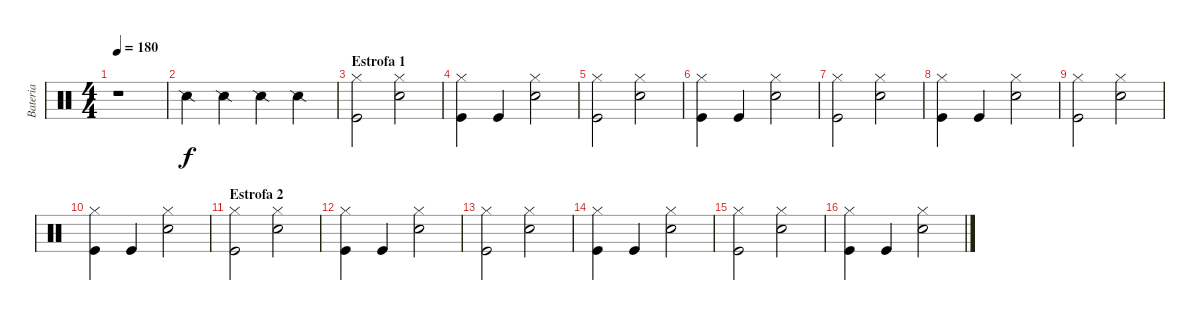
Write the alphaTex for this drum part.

\track ("Bateria" "Bateria") {instrument percussion}
\staff {score}
\articulation defaults
\ts (4 4)
\tempo 180
\tempo 140
\tempo 180
\clef neutral
\ks c
r.1{dy f} |
"Snare (side stick) 2".4 "Snare (side stick) 2".4 "Snare (side stick) 2".4 "Snare (side stick) 2".4 |
\section ("" "Estrofa 1")
("Hi-Hat (closed)" "Kick (hit)").2 ("Hi-Hat (closed)" "Snare (hit) 2").2 |
("Hi-Hat (closed)" "Kick (hit)").4 "Kick (hit)".4 ("Hi-Hat (closed)" "Snare (hit) 2").2 |
("Hi-Hat (closed)" "Kick (hit)").2 ("Hi-Hat (closed)" "Snare (hit) 2").2 |
("Hi-Hat (closed)" "Kick (hit)").4 "Kick (hit)".4 ("Hi-Hat (closed)" "Snare (hit) 2").2 |
("Hi-Hat (closed)" "Kick (hit)").2 ("Hi-Hat (closed)" "Snare (hit) 2").2 |
("Hi-Hat (closed)" "Kick (hit)").4 "Kick (hit)".4 ("Hi-Hat (closed)" "Snare (hit) 2").2 |
("Hi-Hat (closed)" "Kick (hit)").2 ("Hi-Hat (closed)" "Snare (hit) 2").2 |
("Hi-Hat (closed)" "Kick (hit)").4 "Kick (hit)".4 ("Hi-Hat (closed)" "Snare (hit) 2").2 |
\section ("" "Estrofa 2")
("Hi-Hat (closed)" "Kick (hit)").2 ("Hi-Hat (closed)" "Snare (hit) 2").2 |
("Hi-Hat (closed)" "Kick (hit)").4 "Kick (hit)".4 ("Hi-Hat (closed)" "Snare (hit) 2").2 |
("Hi-Hat (closed)" "Kick (hit)").2 ("Hi-Hat (closed)" "Snare (hit) 2").2 |
("Hi-Hat (closed)" "Kick (hit)").4 "Kick (hit)".4 ("Hi-Hat (closed)" "Snare (hit) 2").2 |
("Hi-Hat (closed)" "Kick (hit)").2 ("Hi-Hat (closed)" "Snare (hit) 2").2 |
("Hi-Hat (closed)" "Kick (hit)").4 "Kick (hit)".4 ("Hi-Hat (closed)" "Snare (hit) 2").2
